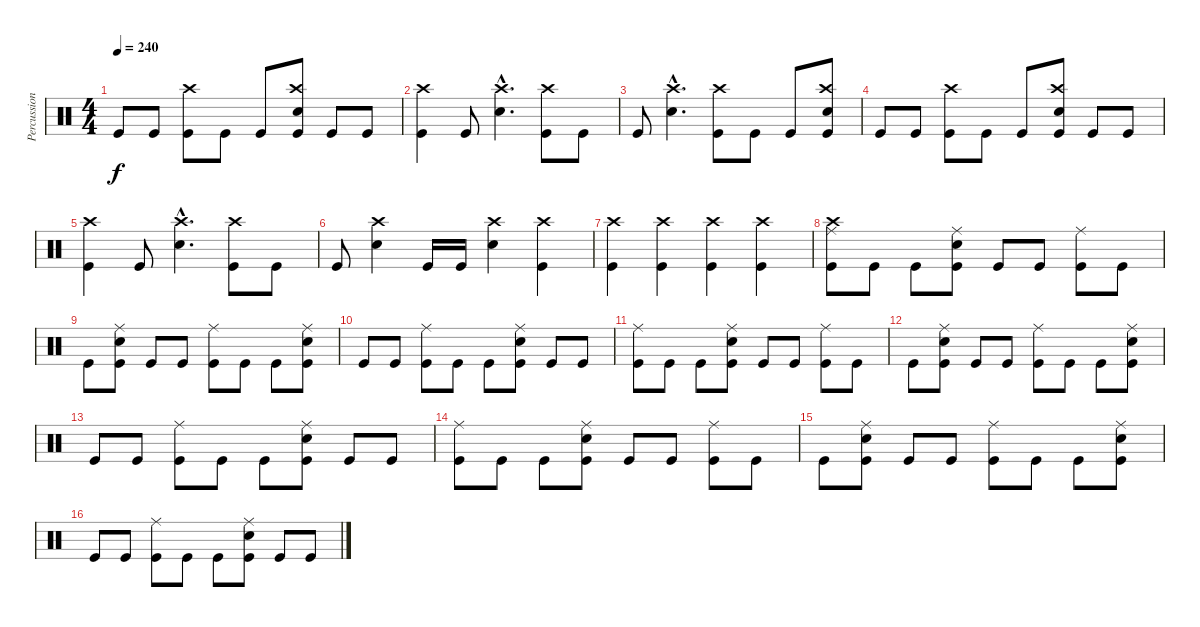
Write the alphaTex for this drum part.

\track ("Percussion" "Percussion") {instrument percussion}
\staff {score}
\articulation defaults
\ts (4 4)
\tempo 240
\clef neutral
\ks c "Kick (hit)".8{dy f} "Kick (hit)".8
("Crash high (hit)" "Kick (hit)").8 "Kick (hit)".8 "Kick (hit)".8 ("Crash high (hit)" "Electric Snare (hit)" "Kick (hit)").8 "Kick (hit)".8 "Kick (hit)".8 |
("Crash high (hit)" "Kick (hit)").4 "Kick (hit)".8 ("Crash high (hit)"{hac} "Electric Snare (hit)"{hac}).4{d} ("Crash high (hit)" "Kick (hit)").8 "Kick (hit)".8 |
"Kick (hit)".8 ("Crash high (hit)"{hac} "Electric Snare (hit)"{hac}).4{d} ("Crash high (hit)" "Kick (hit)").8 "Kick (hit)".8 "Kick (hit)".8 ("Crash high (hit)" "Electric Snare (hit)" "Kick (hit)").8 |
"Kick (hit)".8 "Kick (hit)".8 ("Crash high (hit)" "Kick (hit)").8 "Kick (hit)".8 "Kick (hit)".8 ("Crash high (hit)" "Electric Snare (hit)" "Kick (hit)").8 "Kick (hit)".8 "Kick (hit)".8 |
("Crash high (hit)" "Kick (hit)").4 "Kick (hit)".8 ("Crash high (hit)"{hac} "Electric Snare (hit)"{hac}).4{d} ("Crash high (hit)" "Kick (hit)").8 "Kick (hit)".8 |
"Kick (hit)".8 ("Crash high (hit)" "Electric Snare (hit)").4 "Kick (hit)".16 "Kick (hit)".16 ("Crash high (hit)" "Electric Snare (hit)").4 ("Crash high (hit)" "Kick (hit)").4 |
("Crash high (hit)" "Kick (hit)").4 ("Crash high (hit)" "Kick (hit)").4 ("Crash high (hit)" "Kick (hit)").4 ("Crash high (hit)" "Kick (hit)").4 |
("Ride (middle)" "Crash high (hit)" "Kick (hit)").8 "Kick (hit)".8 "Kick (hit)".8 ("Electric Snare (hit)" "Ride (middle)" "Kick (hit)").8 "Kick (hit)".8 "Kick (hit)".8 ("Ride (middle)" "Kick (hit)").8 "Kick (hit)".8 |
"Kick (hit)".8 ("Electric Snare (hit)" "Ride (middle)" "Kick (hit)").8 "Kick (hit)".8 "Kick (hit)".8 ("Ride (middle)" "Kick (hit)").8 "Kick (hit)".8 "Kick (hit)".8 ("Electric Snare (hit)" "Ride (middle)" "Kick (hit)").8 |
"Kick (hit)".8 "Kick (hit)".8 ("Ride (middle)" "Kick (hit)").8 "Kick (hit)".8 "Kick (hit)".8 ("Electric Snare (hit)" "Ride (middle)" "Kick (hit)").8 "Kick (hit)".8 "Kick (hit)".8 |
("Ride (middle)" "Kick (hit)").8 "Kick (hit)".8 "Kick (hit)".8 ("Electric Snare (hit)" "Ride (middle)" "Kick (hit)").8 "Kick (hit)".8 "Kick (hit)".8 ("Ride (middle)" "Kick (hit)").8 "Kick (hit)".8 |
"Kick (hit)".8 ("Electric Snare (hit)" "Ride (middle)" "Kick (hit)").8 "Kick (hit)".8 "Kick (hit)".8 ("Ride (middle)" "Kick (hit)").8 "Kick (hit)".8 "Kick (hit)".8 ("Electric Snare (hit)" "Ride (middle)" "Kick (hit)").8 |
"Kick (hit)".8 "Kick (hit)".8 ("Ride (middle)" "Kick (hit)").8 "Kick (hit)".8 "Kick (hit)".8 ("Electric Snare (hit)" "Ride (middle)" "Kick (hit)").8 "Kick (hit)".8 "Kick (hit)".8 |
("Ride (middle)" "Kick (hit)").8 "Kick (hit)".8 "Kick (hit)".8 ("Electric Snare (hit)" "Ride (middle)" "Kick (hit)").8 "Kick (hit)".8 "Kick (hit)".8 ("Ride (middle)" "Kick (hit)").8 "Kick (hit)".8 |
"Kick (hit)".8 ("Electric Snare (hit)" "Ride (middle)" "Kick (hit)").8 "Kick (hit)".8 "Kick (hit)".8 ("Ride (middle)" "Kick (hit)").8 "Kick (hit)".8 "Kick (hit)".8 ("Electric Snare (hit)" "Ride (middle)" "Kick (hit)").8 |
"Kick (hit)".8 "Kick (hit)".8 ("Ride (middle)" "Kick (hit)").8 "Kick (hit)".8 "Kick (hit)".8 ("Electric Snare (hit)" "Ride (middle)" "Kick (hit)").8 "Kick (hit)".8 "Kick (hit)".8
